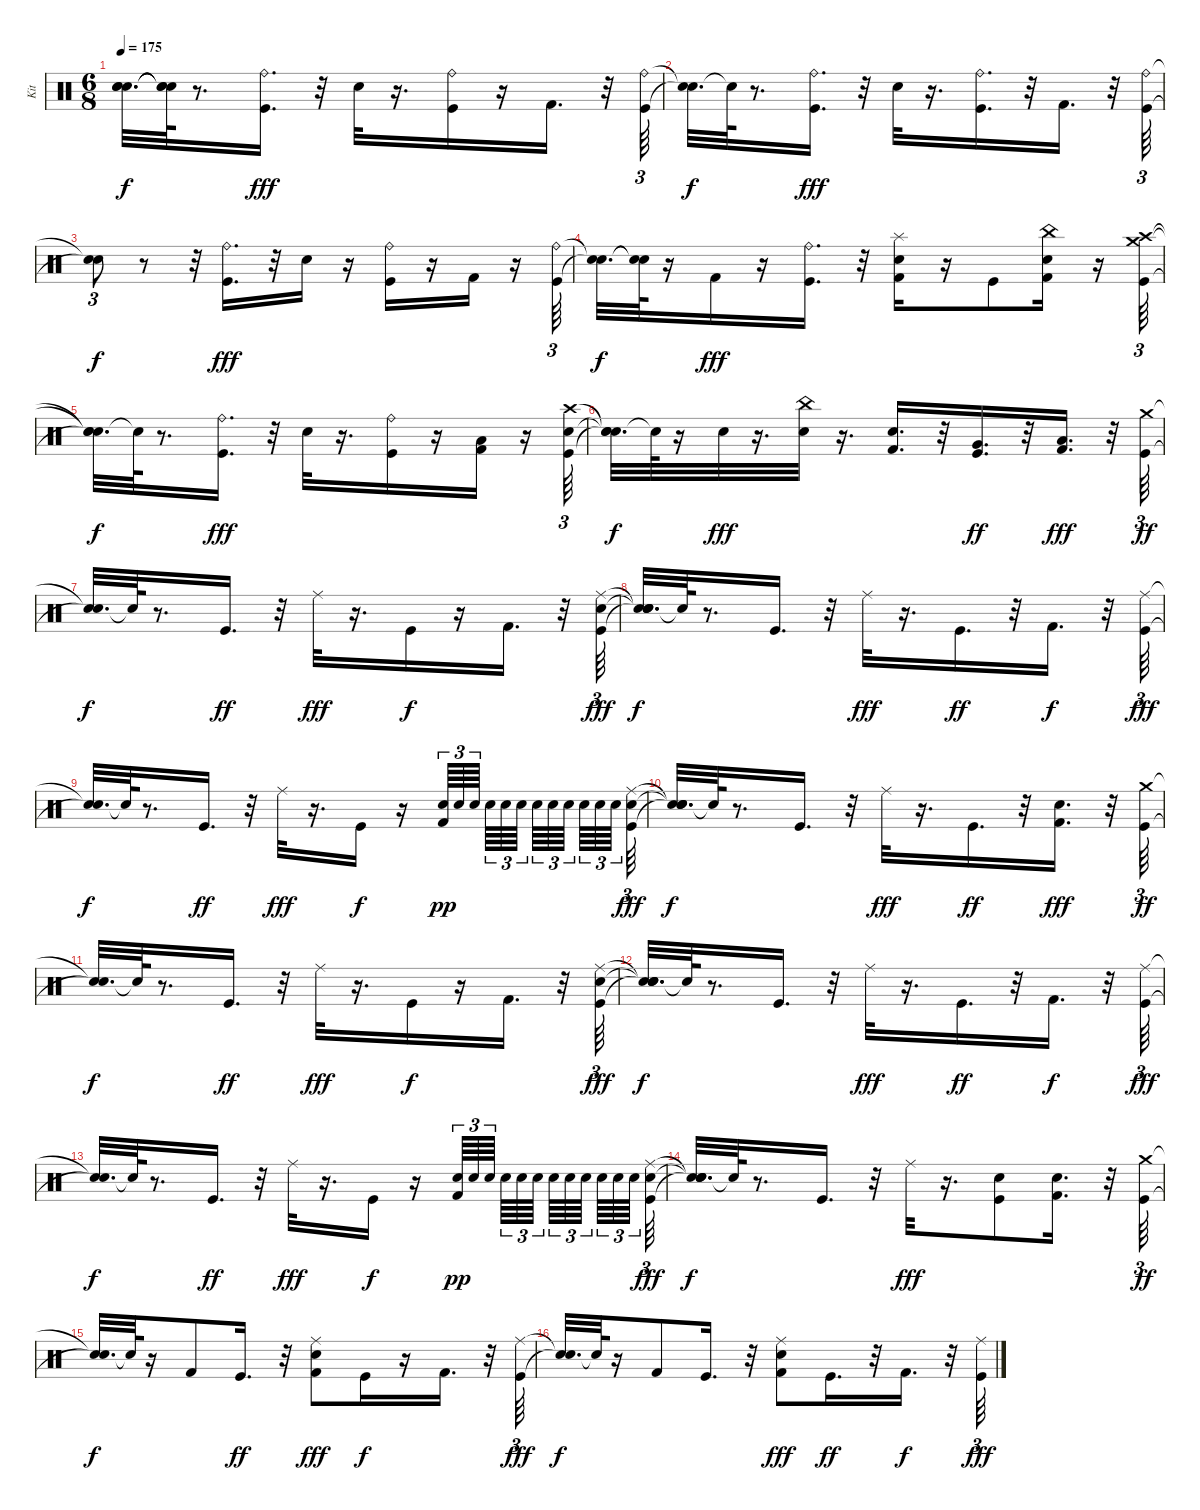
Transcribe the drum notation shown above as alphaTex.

\track ("Kit" "Kit") {instrument percussion}
\staff {score}
\articulation defaults
\ts (6 8)
\tempo 175
\clef neutral
\ks c
("Snare (hit)"{t} "Snare (hit)"{t} "Snare (hit)"{t}).32{d dy f} ("Snare (hit)"{t} "Snare (hit)"{t} "Snare (hit)"{t}).64 r.8{d} ("Kick (hit)" "Ride (bell)").16{d dy fff} r.32 "Snare (hit) 2".32 r.16{d} ("Kick (hit)" "Ride (bell)").16 r.16 "Kick (hit) 2".16{d} r.32 ("Kick (hit)" "Ride (bell)").64{tu (3 2)} |
("Snare (hit)"{t} "Snare (hit)"{t}).32{d dy f} "Snare (hit)"{t}.64 r.8{d} ("Kick (hit)" "Ride (bell)").16{d dy fff} r.32 "Snare (hit) 2".32 r.16{d} ("Kick (hit)" "Ride (bell)").16{d} r.32 "Kick (hit) 2".16{d} r.32 ("Kick (hit)" "Ride (bell)").64{tu (3 2)} |
("Snare (hit)"{t} "Snare (hit)"{t}).8{tu (3 2) dy f} r.8 r.32 ("Kick (hit)" "Ride (bell)").16{d dy fff} r.32 "Snare (hit) 2".16 r.16 ("Kick (hit)" "Ride (bell)").16 r.16 "Kick (hit) 2".16 r.16 ("Kick (hit)" "Ride (bell)").64{tu (3 2)} |
("Snare (hit)"{t} "Snare (hit)"{t}).32{d dy f} ("Snare (hit)"{t} "Snare (hit)"{t}).64 r.16 "Kick (hit) 2".16{dy fff} r.16 ("Kick (hit)" "Ride (bell)").16{d} r.32 ("Kick (hit) 2" "Snare (hit) 2" "Splash (hit)").16 r.16 "Kick (hit)".8 ("Kick (hit) 2" "Snare (hit) 2" "China (hit)").16 r.16 ("Kick (hit)" "Crash high (hit)" "Crash medium (hit)").64{tu (3 2)} |
("Snare (hit)"{t} "Snare (hit)"{t} "Snare (hit)"{t}).32{d dy f} "Snare (hit)"{t}.64 r.8{d} ("Kick (hit)" "Ride (bell)").16{d dy fff} r.32 "Snare (hit) 2".32 r.16{d} ("Kick (hit)" "Ride (bell)").16 r.16 ("Kick (hit) 2" "Low Floor Tom (hit)").16 r.16 ("Kick (hit)" "Snare (hit) 2" "Crash high (hit)").64{tu (3 2)} |
("Snare (hit)"{t} "Snare (hit)"{t} "Snare (hit)"{t}).32{d dy f} "Snare (hit)"{t}.64 r.16 "Snare (hit) 2".32{dy fff} r.16{d} ("Snare (hit) 2" "China (hit)").32 r.16{d} ("Kick (hit) 2" "Snare (hit) 2").16{d} r.32 ("Kick (hit)" "Very Low Tom (hit)").16{d dy ff} r.32 ("Kick (hit) 2" "Low Floor Tom (hit)").16{d dy fff} r.32 ("Kick (hit)" "Crash medium (hit)").64{tu (3 2) dy ff} |
("Snare (hit)"{t} "Snare (hit)"{t}).32{d dy f} "Snare (hit)"{t}.64 r.8{d} "Kick (hit)".16{d dy ff} r.32 "Ride (middle)".32{dy fff} r.16{d} "Kick (hit)".16{dy f} r.16 "Kick (hit) 2".16{d} r.32 ("Kick (hit)" "Snare (hit) 2" "Ride (middle)").64{tu (3 2) dy fff} |
("Snare (hit)"{t} "Snare (hit)"{t} "Snare (hit)"{t} "Snare (hit) 2").32{d dy f} "Snare (hit)"{t}.64 r.8{d} "Kick (hit)".16{d} r.32 "Ride (middle)".32{dy fff} r.16{d} "Kick (hit)".16{d dy ff} r.32 "Kick (hit) 2".16{d dy f} r.32 ("Kick (hit)" "Ride (middle)").64{tu (3 2) dy fff} |
("Snare (hit)"{t} "Snare (hit)"{t}).32{d dy f} "Snare (hit)"{t}.64 r.8{d} "Kick (hit)".16{d dy ff} r.32 "Ride (middle)".32{dy fff} r.16{d} "Kick (hit)".16{dy f} r.16 ("Kick (hit) 2" "Snare (hit) 2").64{tu (3 2) dy pp} "Snare (hit) 2".64{tu (3 2)} "Snare (hit) 2".64{tu (3 2) beam splitsecondary} "Snare (hit) 2".64{tu (3 2)} "Snare (hit) 2".64{tu (3 2)} "Snare (hit) 2".64{tu (3 2) beam splitsecondary} "Snare (hit) 2".64{tu (3 2)} "Snare (hit) 2".64{tu (3 2)} "Snare (hit) 2".64{tu (3 2) beam splitsecondary} "Snare (hit) 2".64{tu (3 2)} "Snare (hit) 2".64{tu (3 2)} "Snare (hit) 2".64{tu (3 2)} ("Kick (hit)" "Snare (hit) 2" "Ride (middle)").64{tu (3 2) dy fff} |
("Snare (hit)"{t} "Snare (hit)"{t} "Snare (hit)"{t} "Snare (hit) 2").32{d dy f} "Snare (hit)"{t}.64 r.8{d} "Kick (hit)".16{d} r.32 "Ride (middle)".32{dy fff} r.16{d} "Kick (hit)".16{d dy ff} r.32 ("Kick (hit) 2" "Snare (hit) 2").16{d dy fff} r.32 ("Kick (hit)" "Crash medium (hit)").64{tu (3 2) dy ff} |
("Snare (hit)"{t} "Snare (hit)"{t}).32{d dy f} "Snare (hit)"{t}.64 r.8{d} "Kick (hit)".16{d dy ff} r.32 "Ride (middle)".32{dy fff} r.16{d} "Kick (hit)".16{dy f} r.16 "Kick (hit) 2".16{d} r.32 ("Kick (hit)" "Snare (hit) 2" "Ride (middle)").64{tu (3 2) dy fff} |
("Snare (hit)"{t} "Snare (hit)"{t} "Snare (hit)"{t} "Snare (hit) 2").32{d dy f} "Snare (hit)"{t}.64 r.8{d} "Kick (hit)".16{d} r.32 "Ride (middle)".32{dy fff} r.16{d} "Kick (hit)".16{d dy ff} r.32 "Kick (hit) 2".16{d dy f} r.32 ("Kick (hit)" "Ride (middle)").64{tu (3 2) dy fff} |
("Snare (hit)"{t} "Snare (hit)"{t}).32{d dy f} "Snare (hit)"{t}.64 r.8{d} "Kick (hit)".16{d dy ff} r.32 "Ride (middle)".32{dy fff} r.16{d} "Kick (hit)".16{dy f} r.16 ("Kick (hit) 2" "Snare (hit) 2").64{tu (3 2) dy pp} "Snare (hit) 2".64{tu (3 2)} "Snare (hit) 2".64{tu (3 2) beam splitsecondary} "Snare (hit) 2".64{tu (3 2)} "Snare (hit) 2".64{tu (3 2)} "Snare (hit) 2".64{tu (3 2) beam splitsecondary} "Snare (hit) 2".64{tu (3 2)} "Snare (hit) 2".64{tu (3 2)} "Snare (hit) 2".64{tu (3 2) beam splitsecondary} "Snare (hit) 2".64{tu (3 2)} "Snare (hit) 2".64{tu (3 2)} "Snare (hit) 2".64{tu (3 2)} ("Kick (hit)" "Snare (hit) 2" "Ride (middle)").64{tu (3 2) dy fff} |
("Snare (hit)"{t} "Snare (hit)"{t} "Snare (hit)"{t} "Snare (hit) 2").32{d dy f} "Snare (hit)"{t}.64 r.8{d} "Kick (hit)".16{d} r.32 "Ride (middle)".32{dy fff} r.16{d} ("Kick (hit)" "Snare (hit) 2").8 ("Kick (hit) 2" "Snare (hit) 2").16{d} r.32 ("Kick (hit)" "Crash medium (hit)").64{tu (3 2) dy ff} |
("Snare (hit)"{t} "Snare (hit)"{t}).32{d dy f} "Snare (hit)"{t}.64 r.16 "Kick (hit) 2".8 "Kick (hit)".16{d dy ff} r.32 ("Kick (hit) 2" "Snare (hit) 2" "Ride (middle)").8{dy fff} "Kick (hit)".16{dy f} r.16 "Kick (hit) 2".16{d} r.32 ("Kick (hit)" "Ride (middle)").64{tu (3 2) dy fff} |
("Snare (hit)"{t} "Snare (hit)"{t}).32{d dy f} "Snare (hit)"{t}.64 r.16 "Kick (hit) 2".8 "Kick (hit)".16{d} r.32 ("Kick (hit) 2" "Snare (hit) 2" "Ride (middle)").8{dy fff} "Kick (hit)".16{d dy ff} r.32 "Kick (hit) 2".16{d dy f} r.32 ("Kick (hit)" "Ride (middle)").64{tu (3 2) dy fff}
